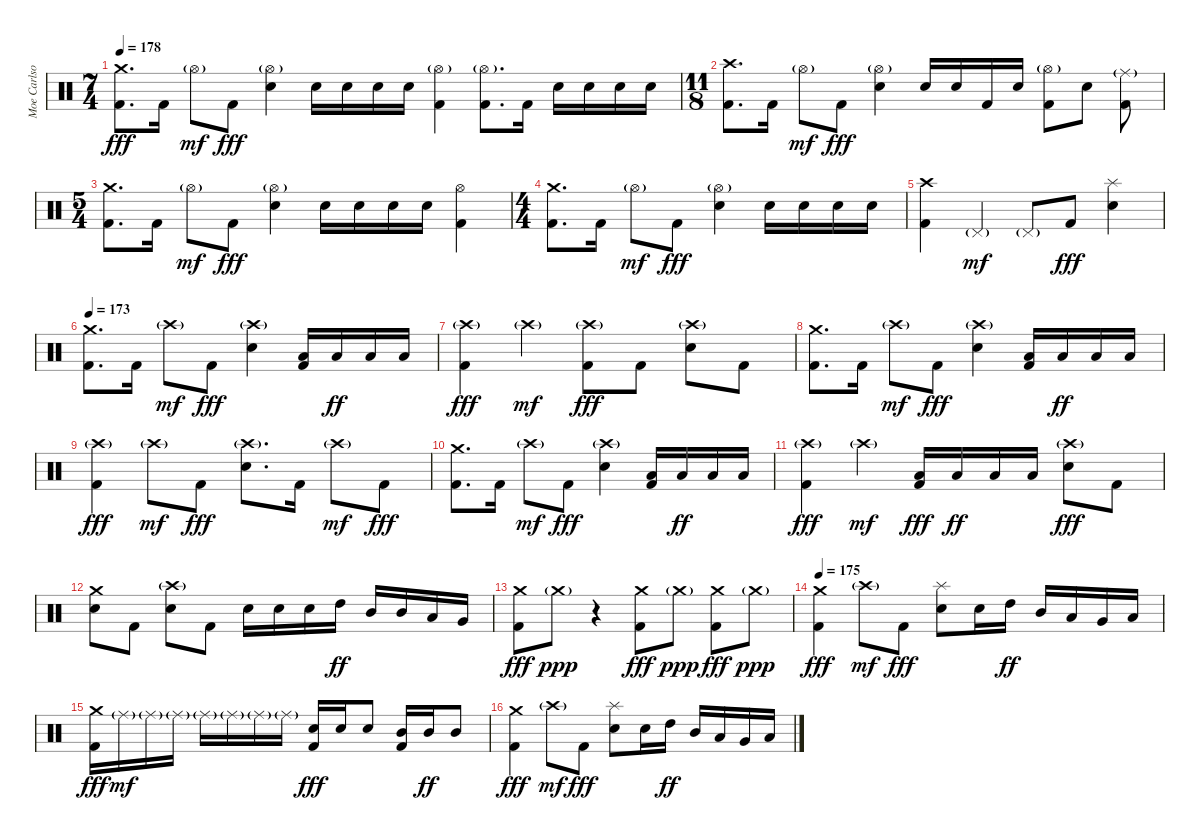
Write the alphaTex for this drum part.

\track ("Moe Carlson" "Moe Carlso") {instrument percussion}
\staff {score}
\articulation defaults
\ts (7 4)
\tempo 178
\clef neutral
\ks c
("Crash medium (hit)" "Kick (hit) 2").8{d dy fff} "Kick (hit) 2".16 "Hi-Hat (open)"{g}.8{dy mf} "Kick (hit) 2".8{dy fff} ("Hi-Hat (open)"{g} "Electric Snare (hit)").4 "Electric Snare (hit)".16 "Electric Snare (hit)".16 "Electric Snare (hit)".16 "Electric Snare (hit)".16 ("Hi-Hat (open)"{g} "Kick (hit) 2").4 ("Hi-Hat (open)"{g} "Kick (hit) 2").8{d} "Kick (hit) 2".16 "Electric Snare (hit)".16 "Electric Snare (hit)".16 "Electric Snare (hit)".16 "Electric Snare (hit)".16 |
\ts (11 8)
("Crash high (hit)" "Kick (hit) 2").8{d} "Kick (hit) 2".16 "Hi-Hat (open)"{g}.8{dy mf} "Kick (hit) 2".8{dy fff} ("Hi-Hat (open)"{g} "Electric Snare (hit)").4 "Electric Snare (hit)".16 "Electric Snare (hit)".16 "Kick (hit) 2".16 "Electric Snare (hit)".16 ("Hi-Hat (open)"{g} "Kick (hit) 2").8 "Electric Snare (hit)".8 ("Ride (middle)"{g} "Kick (hit) 2").8 |
\ts (5 4)
("Crash medium (hit)" "Kick (hit) 2").8{d} "Kick (hit) 2".16 "Hi-Hat (open)"{g}.8{dy mf} "Kick (hit) 2".8{dy fff} ("Hi-Hat (open)"{g} "Electric Snare (hit)").4 "Electric Snare (hit)".16 "Electric Snare (hit)".16 "Electric Snare (hit)".16 "Electric Snare (hit)".16 ("Hi-Hat (open)" "Kick (hit) 2").4 |
\ts (4 4)
("Crash medium (hit)" "Kick (hit) 2").8{d} "Kick (hit) 2".16 "Hi-Hat (open)"{g}.8{dy mf} "Kick (hit) 2".8{dy fff} ("Hi-Hat (open)"{g} "Electric Snare (hit)").4 "Electric Snare (hit)".16 "Electric Snare (hit)".16 "Electric Snare (hit)".16 "Electric Snare (hit)".16 |
("Crash high (hit)" "Kick (hit) 2").4 "Pedal Hi-Hat (hit)"{g}.4{dy mf} "Pedal Hi-Hat (hit)"{g}.8 "Kick (hit) 2".8{dy fff} ("Splash (hit)" "Electric Snare (hit)").4 |
\tempo 173
("Crash medium (hit)" "Kick (hit) 2").8{d} "Kick (hit) 2".16 "Crash high (hit)"{g}.8{dy mf} "Kick (hit) 2".8{dy fff} ("Crash high (hit)"{g} "Electric Snare (hit)").4 ("Low Tom (hit)" "Kick (hit) 2").16 "Low Tom (hit)".16{dy ff} "Low Tom (hit)".16 "Low Tom (hit)".16 |
("Crash high (hit)"{g} "Kick (hit) 2").4{dy fff} "Crash high (hit)"{g}.4{dy mf} ("Crash high (hit)"{g} "Kick (hit) 2").8{dy fff} "Kick (hit) 2".8 ("Crash high (hit)"{g} "Electric Snare (hit)").8 "Kick (hit) 2".8 |
("Crash medium (hit)" "Kick (hit) 2").8{d} "Kick (hit) 2".16 "Crash high (hit)"{g}.8{dy mf} "Kick (hit) 2".8{dy fff} ("Crash high (hit)"{g} "Electric Snare (hit)").4 ("Low Tom (hit)" "Kick (hit) 2").16 "Low Tom (hit)".16{dy ff} "Low Tom (hit)".16 "Low Tom (hit)".16 |
("Crash high (hit)"{g} "Kick (hit) 2").4{dy fff} "Crash high (hit)"{g}.8{dy mf} "Kick (hit) 2".8{dy fff} ("Crash high (hit)"{g} "Electric Snare (hit)").8{d} "Kick (hit) 2".16 "Crash high (hit)"{g}.8{dy mf} "Kick (hit) 2".8{dy fff} |
("Crash medium (hit)" "Kick (hit) 2").8{d} "Kick (hit) 2".16 "Crash high (hit)"{g}.8{dy mf} "Kick (hit) 2".8{dy fff} ("Crash high (hit)"{g} "Electric Snare (hit)").4 ("Low Tom (hit)" "Kick (hit) 2").16 "Low Tom (hit)".16{dy ff} "Low Tom (hit)".16 "Low Tom (hit)".16 |
("Crash high (hit)"{g} "Kick (hit) 2").4{dy fff} "Crash high (hit)"{g}.4{dy mf} ("Low Tom (hit)" "Kick (hit) 2").16{dy fff} "Low Tom (hit)".16{dy ff} "Low Tom (hit)".16 "Low Tom (hit)".16 ("Crash high (hit)"{g} "Electric Snare (hit)").8{dy fff} "Kick (hit) 2".8 |
("Crash medium (hit)" "Electric Snare (hit)").8 "Kick (hit) 2".8 ("Crash high (hit)"{g} "Electric Snare (hit)").8 "Kick (hit) 2".8 "Electric Snare (hit)".16 "Electric Snare (hit)".16 "Electric Snare (hit)".16 "High Tom (hit)".16{dy ff} "Mid Tom (hit)".16 "Mid Tom (hit)".16 "Low Tom (hit)".16 "Very Low Tom (hit)".16 |
("Crash medium (hit)" "Kick (hit) 2").8{dy fff} "Crash medium (hit)"{g}.8{dy ppp} r.4 ("Crash medium (hit)" "Kick (hit) 2").8{dy fff} "Crash medium (hit)"{g}.8{dy ppp} ("Crash medium (hit)" "Kick (hit) 2").8{dy fff} "Crash medium (hit)"{g}.8{dy ppp} |
\tempo 175
("Crash medium (hit)" "Kick (hit) 2").4{dy fff} "Crash high (hit)"{g}.8{dy mf} "Kick (hit) 2".8{dy fff} ("Splash (hit)" "Electric Snare (hit)").8 "Electric Snare (hit)".16 "High Tom (hit)".16{dy ff} "Mid Tom (hit)".16 "Low Tom (hit)".16 "Very Low Tom (hit)".16 "Low Floor Tom (hit)".16 |
("Crash medium (hit)" "Kick (hit) 2").16{dy fff} "Ride (middle)"{g}.16{dy mf} "Ride (middle)"{g}.16 "Ride (middle)"{g}.16 "Ride (middle)"{g}.16 "Ride (middle)"{g}.16 "Ride (middle)"{g}.16 "Ride (middle)"{g}.16 ("Electric Snare (hit)" "Kick (hit) 2").16{dy fff} "Electric Snare (hit)".16 "Electric Snare (hit)".8 ("Mid Tom (hit)" "Kick (hit) 2").16 "Mid Tom (hit)".16{dy ff} "Mid Tom (hit)".8 |
("Crash medium (hit)" "Kick (hit) 2").4{dy fff} "Crash high (hit)"{g}.8{dy mf} "Kick (hit) 2".8{dy fff} ("Splash (hit)" "Electric Snare (hit)").8 "Electric Snare (hit)".16 "High Tom (hit)".16{dy ff} "Mid Tom (hit)".16 "Low Tom (hit)".16 "Very Low Tom (hit)".16 "Low Floor Tom (hit)".16
